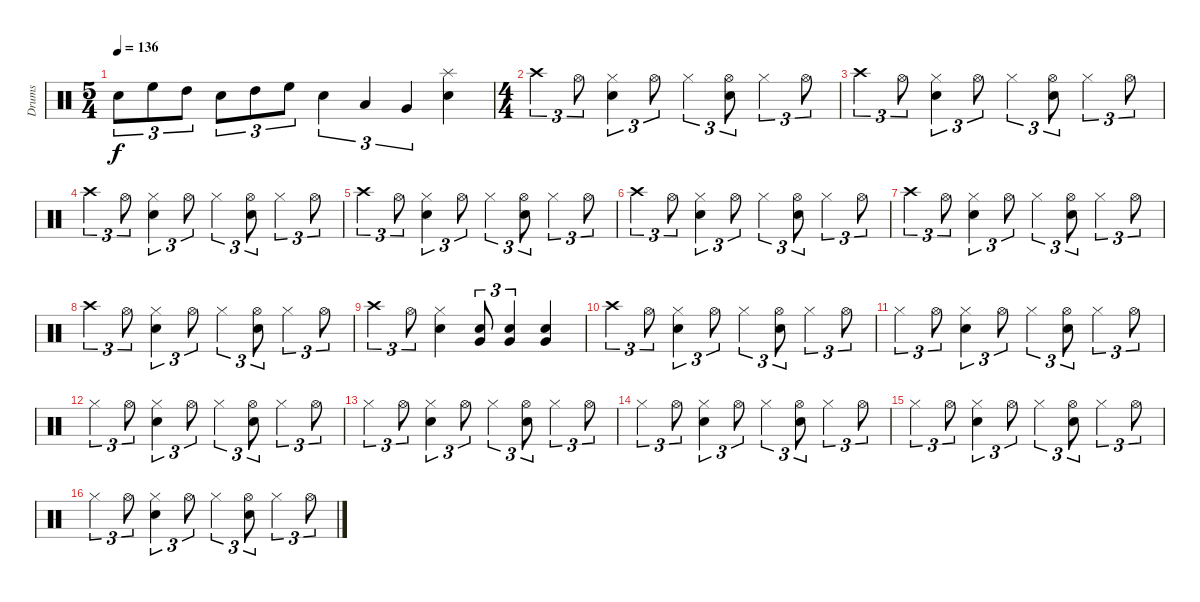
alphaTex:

\track ("Drums" "Drums") {instrument percussion}
\staff {score}
\articulation defaults
\ts (5 4)
\tempo 136
\clef neutral
\ks c "Snare (hit) 2".8{tu (3 2) dy f} "High Floor Tom (hit)".8{tu (3 2)} "High Tom (hit)".8{tu (3 2)} "Snare (hit) 2".8{tu (3 2)} "High Tom (hit)".8{tu (3 2)} "High Floor Tom (hit)".8{tu (3 2)} "Snare (hit) 2".4{tu (3 2)} "Low Tom (hit)".4{tu (3 2)} "Very Low Tom (hit)".4{tu (3 2)}
("Splash (hit)" "Snare (hit) 2").4 |
\ts (4 4)
"Crash high (hit)".4{tu (3 2)} "Hi-Hat (open)".8{tu (3 2)} ("Hi-Hat (closed)" "Snare (hit) 2").4{tu (3 2)} "Hi-Hat (open)".8{tu (3 2)} "Hi-Hat (closed)".4{tu (3 2)} ("Hi-Hat (open)" "Snare (hit) 2").8{tu (3 2)} "Hi-Hat (closed)".4{tu (3 2)} "Hi-Hat (open)".8{tu (3 2)} |
"Crash high (hit)".4{tu (3 2)} "Hi-Hat (open)".8{tu (3 2)} ("Hi-Hat (closed)" "Snare (hit) 2").4{tu (3 2)} "Hi-Hat (open)".8{tu (3 2)} "Hi-Hat (closed)".4{tu (3 2)} ("Hi-Hat (open)" "Snare (hit) 2").8{tu (3 2)} "Hi-Hat (closed)".4{tu (3 2)} "Hi-Hat (open)".8{tu (3 2)} |
"Crash high (hit)".4{tu (3 2)} "Hi-Hat (open)".8{tu (3 2)} ("Hi-Hat (closed)" "Snare (hit) 2").4{tu (3 2)} "Hi-Hat (open)".8{tu (3 2)} "Hi-Hat (closed)".4{tu (3 2)} ("Hi-Hat (open)" "Snare (hit) 2").8{tu (3 2)} "Hi-Hat (closed)".4{tu (3 2)} "Hi-Hat (open)".8{tu (3 2)} |
"Crash high (hit)".4{tu (3 2)} "Hi-Hat (open)".8{tu (3 2)} ("Hi-Hat (closed)" "Snare (hit) 2").4{tu (3 2)} "Hi-Hat (open)".8{tu (3 2)} "Hi-Hat (closed)".4{tu (3 2)} ("Hi-Hat (open)" "Snare (hit) 2").8{tu (3 2)} "Hi-Hat (closed)".4{tu (3 2)} "Hi-Hat (open)".8{tu (3 2)} |
"Crash high (hit)".4{tu (3 2)} "Hi-Hat (open)".8{tu (3 2)} ("Hi-Hat (closed)" "Snare (hit) 2").4{tu (3 2)} "Hi-Hat (open)".8{tu (3 2)} "Hi-Hat (closed)".4{tu (3 2)} ("Hi-Hat (open)" "Snare (hit) 2").8{tu (3 2)} "Hi-Hat (closed)".4{tu (3 2)} "Hi-Hat (open)".8{tu (3 2)} |
"Crash high (hit)".4{tu (3 2)} "Hi-Hat (open)".8{tu (3 2)} ("Hi-Hat (closed)" "Snare (hit) 2").4{tu (3 2)} "Hi-Hat (open)".8{tu (3 2)} "Hi-Hat (closed)".4{tu (3 2)} ("Hi-Hat (open)" "Snare (hit) 2").8{tu (3 2)} "Hi-Hat (closed)".4{tu (3 2)} "Hi-Hat (open)".8{tu (3 2)} |
"Crash high (hit)".4{tu (3 2)} "Hi-Hat (open)".8{tu (3 2)} ("Hi-Hat (closed)" "Snare (hit) 2").4{tu (3 2)} "Hi-Hat (open)".8{tu (3 2)} "Hi-Hat (closed)".4{tu (3 2)} ("Hi-Hat (open)" "Snare (hit) 2").8{tu (3 2)} "Hi-Hat (closed)".4{tu (3 2)} "Hi-Hat (open)".8{tu (3 2)} |
"Crash high (hit)".4{tu (3 2)} "Hi-Hat (open)".8{tu (3 2)} ("Hi-Hat (closed)" "Snare (hit) 2").4 ("Snare (hit) 2" "Very Low Tom (hit)").8{tu (3 2)} ("Snare (hit) 2" "Very Low Tom (hit)").4{tu (3 2)} ("Snare (hit) 2" "Very Low Tom (hit)").4 |
"Crash high (hit)".4{tu (3 2)} "Hi-Hat (open)".8{tu (3 2)} ("Hi-Hat (closed)" "Snare (hit) 2").4{tu (3 2)} "Hi-Hat (open)".8{tu (3 2)} "Hi-Hat (closed)".4{tu (3 2)} ("Hi-Hat (open)" "Snare (hit) 2").8{tu (3 2)} "Hi-Hat (closed)".4{tu (3 2)} "Hi-Hat (open)".8{tu (3 2)} |
"Hi-Hat (closed)".4{tu (3 2)} "Hi-Hat (open)".8{tu (3 2)} ("Hi-Hat (closed)" "Snare (hit) 2").4{tu (3 2)} "Hi-Hat (open)".8{tu (3 2)} "Hi-Hat (closed)".4{tu (3 2)} ("Hi-Hat (open)" "Snare (hit) 2").8{tu (3 2)} "Hi-Hat (closed)".4{tu (3 2)} "Hi-Hat (open)".8{tu (3 2)} |
"Hi-Hat (closed)".4{tu (3 2)} "Hi-Hat (open)".8{tu (3 2)} ("Hi-Hat (closed)" "Snare (hit) 2").4{tu (3 2)} "Hi-Hat (open)".8{tu (3 2)} "Hi-Hat (closed)".4{tu (3 2)} ("Hi-Hat (open)" "Snare (hit) 2").8{tu (3 2)} "Hi-Hat (closed)".4{tu (3 2)} "Hi-Hat (open)".8{tu (3 2)} |
"Hi-Hat (closed)".4{tu (3 2)} "Hi-Hat (open)".8{tu (3 2)} ("Hi-Hat (closed)" "Snare (hit) 2").4{tu (3 2)} "Hi-Hat (open)".8{tu (3 2)} "Hi-Hat (closed)".4{tu (3 2)} ("Hi-Hat (open)" "Snare (hit) 2").8{tu (3 2)} "Hi-Hat (closed)".4{tu (3 2)} "Hi-Hat (open)".8{tu (3 2)} |
"Hi-Hat (closed)".4{tu (3 2)} "Hi-Hat (open)".8{tu (3 2)} ("Hi-Hat (closed)" "Snare (hit) 2").4{tu (3 2)} "Hi-Hat (open)".8{tu (3 2)} "Hi-Hat (closed)".4{tu (3 2)} ("Hi-Hat (open)" "Snare (hit) 2").8{tu (3 2)} "Hi-Hat (closed)".4{tu (3 2)} "Hi-Hat (open)".8{tu (3 2)} |
"Hi-Hat (closed)".4{tu (3 2)} "Hi-Hat (open)".8{tu (3 2)} ("Hi-Hat (closed)" "Snare (hit) 2").4{tu (3 2)} "Hi-Hat (open)".8{tu (3 2)} "Hi-Hat (closed)".4{tu (3 2)} ("Hi-Hat (open)" "Snare (hit) 2").8{tu (3 2)} "Hi-Hat (closed)".4{tu (3 2)} "Hi-Hat (open)".8{tu (3 2)} |
"Hi-Hat (closed)".4{tu (3 2)} "Hi-Hat (open)".8{tu (3 2)} ("Hi-Hat (closed)" "Snare (hit) 2").4{tu (3 2)} "Hi-Hat (open)".8{tu (3 2)} "Hi-Hat (closed)".4{tu (3 2)} ("Hi-Hat (open)" "Snare (hit) 2").8{tu (3 2)} "Hi-Hat (closed)".4{tu (3 2)} "Hi-Hat (open)".8{tu (3 2)}
